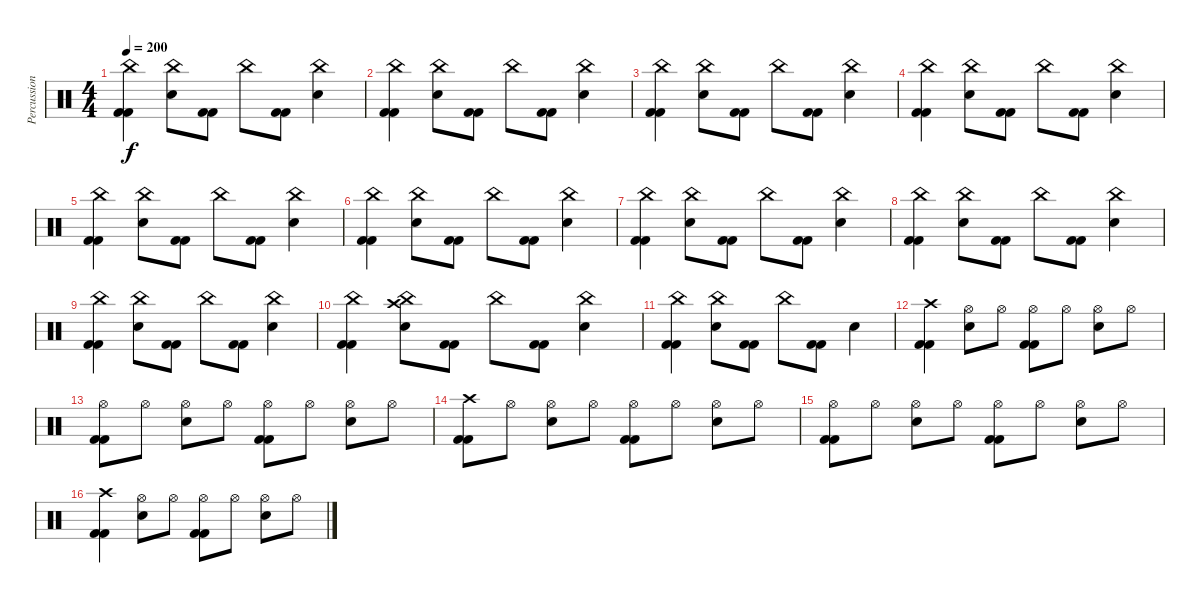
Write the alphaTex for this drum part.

\track ("Percussion" "Percussion") {instrument percussion}
\staff {score}
\articulation defaults
\ts (4 4)
\tempo 200
\clef neutral
\ks c
("China (hit)" "Kick (hit) 2" "Kick (hit) 2").4{dy f} ("China (hit)" "Snare (hit) 2").8 ("Kick (hit) 2" "Kick (hit) 2").8 "China (hit)".8 ("Kick (hit) 2" "Kick (hit) 2").8 ("China (hit)" "Snare (hit) 2").4 |
("China (hit)" "Kick (hit) 2" "Kick (hit) 2").4 ("China (hit)" "Snare (hit) 2").8 ("Kick (hit) 2" "Kick (hit) 2").8 "China (hit)".8 ("Kick (hit) 2" "Kick (hit) 2").8 ("China (hit)" "Snare (hit) 2").4 |
("China (hit)" "Kick (hit) 2" "Kick (hit) 2").4 ("China (hit)" "Snare (hit) 2").8 ("Kick (hit) 2" "Kick (hit) 2").8 "China (hit)".8 ("Kick (hit) 2" "Kick (hit) 2").8 ("China (hit)" "Snare (hit) 2").4 |
("China (hit)" "Kick (hit) 2" "Kick (hit) 2").4 ("China (hit)" "Snare (hit) 2").8 ("Kick (hit) 2" "Kick (hit) 2").8 "China (hit)".8 ("Kick (hit) 2" "Kick (hit) 2").8 ("China (hit)" "Snare (hit) 2").4 |
("China (hit)" "Kick (hit) 2" "Kick (hit) 2").4 ("China (hit)" "Snare (hit) 2").8 ("Kick (hit) 2" "Kick (hit) 2").8 "China (hit)".8 ("Kick (hit) 2" "Kick (hit) 2").8 ("China (hit)" "Snare (hit) 2").4 |
("China (hit)" "Kick (hit) 2" "Kick (hit) 2").4 ("China (hit)" "Snare (hit) 2").8 ("Kick (hit) 2" "Kick (hit) 2").8 "China (hit)".8 ("Kick (hit) 2" "Kick (hit) 2").8 ("China (hit)" "Snare (hit) 2").4 |
("China (hit)" "Kick (hit) 2" "Kick (hit) 2").4 ("China (hit)" "Snare (hit) 2").8 ("Kick (hit) 2" "Kick (hit) 2").8 "China (hit)".8 ("Kick (hit) 2" "Kick (hit) 2").8 ("China (hit)" "Snare (hit) 2").4 |
("China (hit)" "Kick (hit) 2" "Kick (hit) 2").4 ("China (hit)" "Snare (hit) 2").8 ("Kick (hit) 2" "Kick (hit) 2").8 "China (hit)".8 ("Kick (hit) 2" "Kick (hit) 2").8 ("China (hit)" "Snare (hit) 2").4 |
("China (hit)" "Kick (hit) 2" "Kick (hit) 2").4 ("China (hit)" "Snare (hit) 2").8 ("Kick (hit) 2" "Kick (hit) 2").8 "China (hit)".8 ("Kick (hit) 2" "Kick (hit) 2").8 ("China (hit)" "Snare (hit) 2").4 |
("China (hit)" "Kick (hit) 2" "Kick (hit) 2").4 ("China (hit)" "Snare (hit) 2" "Crash high (hit)").8 ("Kick (hit) 2" "Kick (hit) 2").8 "China (hit)".8 ("Kick (hit) 2" "Kick (hit) 2").8 ("China (hit)" "Snare (hit) 2").4 |
("China (hit)" "Kick (hit) 2" "Kick (hit) 2").4 ("China (hit)" "Snare (hit) 2").8 ("Kick (hit) 2" "Kick (hit) 2").8 "China (hit)".8 ("Kick (hit) 2" "Kick (hit) 2").8 "Snare (hit) 2".4 |
("Crash high (hit)" "Kick (hit) 2" "Kick (hit) 2").4 ("Hi-Hat (open)" "Snare (hit) 2").8 "Hi-Hat (open)".8 ("Hi-Hat (open)" "Kick (hit) 2" "Kick (hit) 2").8 "Hi-Hat (open)".8 ("Hi-Hat (open)" "Snare (hit) 2").8 "Hi-Hat (open)".8 |
("Hi-Hat (open)" "Kick (hit) 2" "Kick (hit) 2").8 "Hi-Hat (open)".8 ("Hi-Hat (open)" "Snare (hit) 2").8 "Hi-Hat (open)".8 ("Hi-Hat (open)" "Kick (hit) 2" "Kick (hit) 2").8 "Hi-Hat (open)".8 ("Hi-Hat (open)" "Snare (hit) 2").8 "Hi-Hat (open)".8 |
("Crash high (hit)" "Kick (hit) 2" "Kick (hit) 2").8 "Hi-Hat (open)".8 ("Hi-Hat (open)" "Snare (hit) 2").8 "Hi-Hat (open)".8 ("Hi-Hat (open)" "Kick (hit) 2" "Kick (hit) 2").8 "Hi-Hat (open)".8 ("Hi-Hat (open)" "Snare (hit) 2").8 "Hi-Hat (open)".8 |
("Hi-Hat (open)" "Kick (hit) 2" "Kick (hit) 2").8 "Hi-Hat (open)".8 ("Hi-Hat (open)" "Snare (hit) 2").8 "Hi-Hat (open)".8 ("Hi-Hat (open)" "Kick (hit) 2" "Kick (hit) 2").8 "Hi-Hat (open)".8 ("Hi-Hat (open)" "Snare (hit) 2").8 "Hi-Hat (open)".8 |
("Crash high (hit)" "Kick (hit) 2" "Kick (hit) 2").4 ("Hi-Hat (open)" "Snare (hit) 2").8 "Hi-Hat (open)".8 ("Hi-Hat (open)" "Kick (hit) 2" "Kick (hit) 2").8 "Hi-Hat (open)".8 ("Hi-Hat (open)" "Snare (hit) 2").8 "Hi-Hat (open)".8
